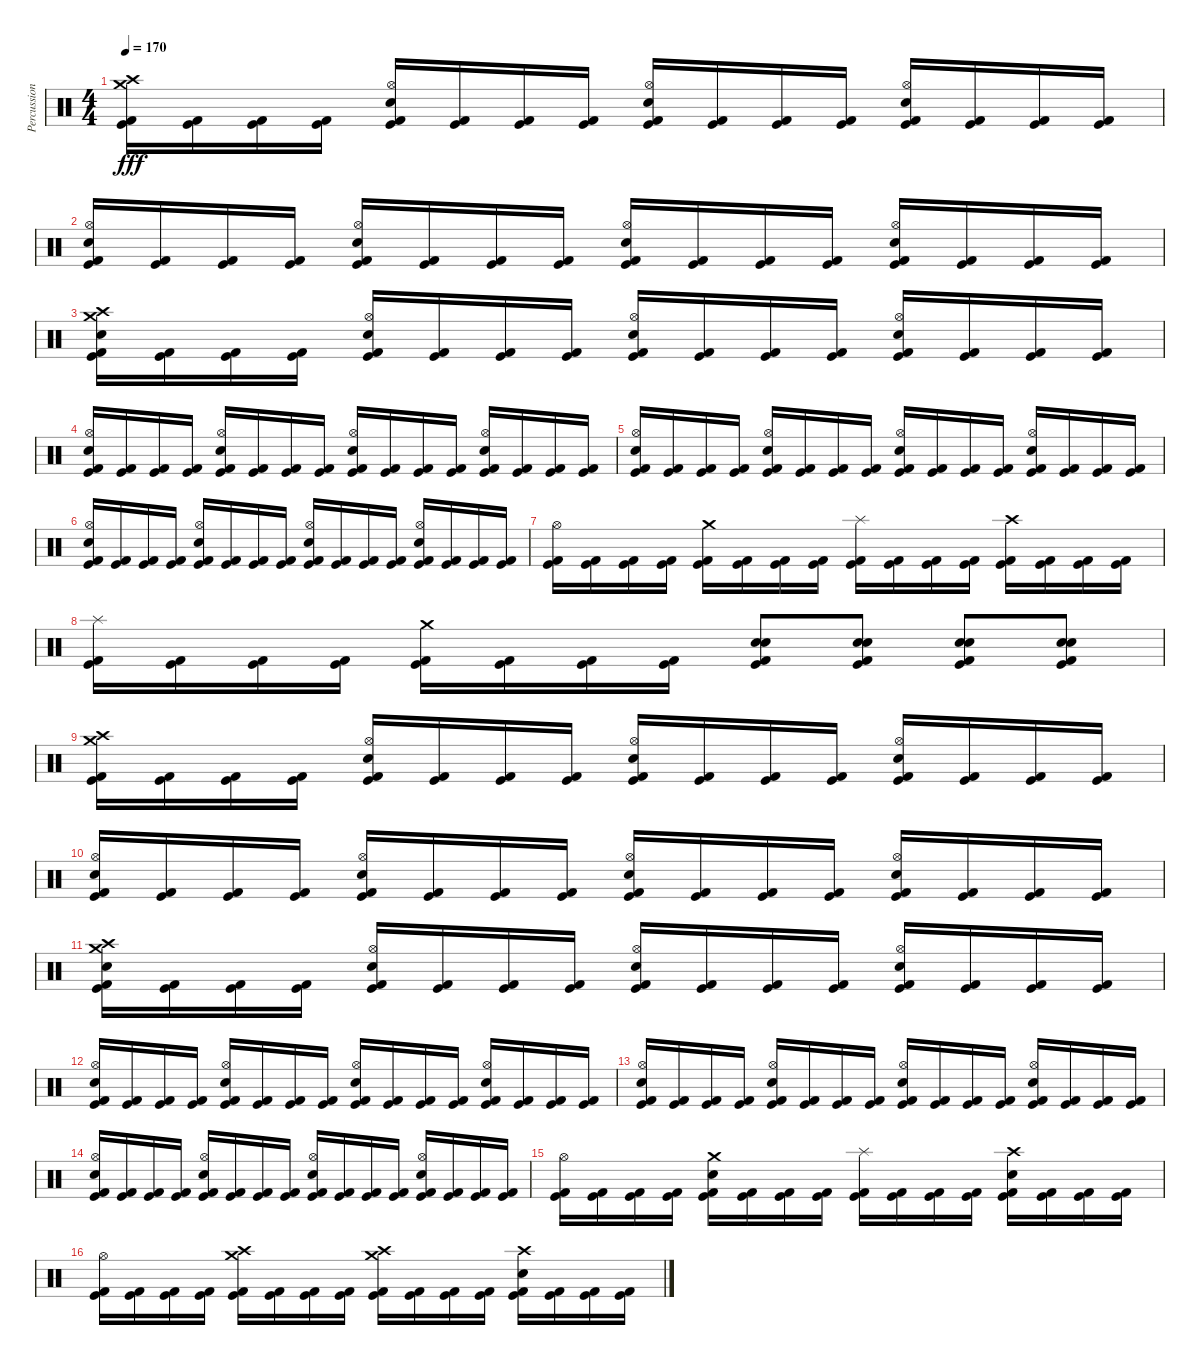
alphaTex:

\track ("Percussions" "Percussion") {instrument percussion}
\staff {score}
\articulation defaults
\ts (4 4)
\tempo 170
\clef neutral
\ks c
("Crash high (hit)" "Crash medium (hit)" "Kick (hit)" "Kick (hit) 2").16{dy fff} ("Kick (hit)" "Kick (hit) 2").16 ("Kick (hit)" "Kick (hit) 2").16 ("Kick (hit)" "Kick (hit) 2").16 ("Hi-Hat (open)" "Electric Snare (hit)" "Kick (hit)" "Kick (hit) 2").16 ("Kick (hit)" "Kick (hit) 2").16 ("Kick (hit)" "Kick (hit) 2").16 ("Kick (hit)" "Kick (hit) 2").16 ("Hi-Hat (open)" "Electric Snare (hit)" "Kick (hit)" "Kick (hit) 2").16 ("Kick (hit)" "Kick (hit) 2").16 ("Kick (hit)" "Kick (hit) 2").16 ("Kick (hit)" "Kick (hit) 2").16 ("Hi-Hat (open)" "Electric Snare (hit)" "Kick (hit)" "Kick (hit) 2").16 ("Kick (hit)" "Kick (hit) 2").16 ("Kick (hit)" "Kick (hit) 2").16 ("Kick (hit)" "Kick (hit) 2").16 |
("Hi-Hat (open)" "Electric Snare (hit)" "Kick (hit)" "Kick (hit) 2").16 ("Kick (hit)" "Kick (hit) 2").16 ("Kick (hit)" "Kick (hit) 2").16 ("Kick (hit)" "Kick (hit) 2").16 ("Hi-Hat (open)" "Electric Snare (hit)" "Kick (hit)" "Kick (hit) 2").16 ("Kick (hit)" "Kick (hit) 2").16 ("Kick (hit)" "Kick (hit) 2").16 ("Kick (hit)" "Kick (hit) 2").16 ("Hi-Hat (open)" "Electric Snare (hit)" "Kick (hit)" "Kick (hit) 2").16 ("Kick (hit)" "Kick (hit) 2").16 ("Kick (hit)" "Kick (hit) 2").16 ("Kick (hit)" "Kick (hit) 2").16 ("Hi-Hat (open)" "Electric Snare (hit)" "Kick (hit)" "Kick (hit) 2").16 ("Kick (hit)" "Kick (hit) 2").16 ("Kick (hit)" "Kick (hit) 2").16 ("Kick (hit)" "Kick (hit) 2").16 |
("Crash high (hit)" "Crash medium (hit)" "Electric Snare (hit)" "Kick (hit)" "Kick (hit) 2").16 ("Kick (hit)" "Kick (hit) 2").16 ("Kick (hit)" "Kick (hit) 2").16 ("Kick (hit)" "Kick (hit) 2").16 ("Hi-Hat (open)" "Electric Snare (hit)" "Kick (hit)" "Kick (hit) 2").16 ("Kick (hit)" "Kick (hit) 2").16 ("Kick (hit)" "Kick (hit) 2").16 ("Kick (hit)" "Kick (hit) 2").16 ("Hi-Hat (open)" "Electric Snare (hit)" "Kick (hit)" "Kick (hit) 2").16 ("Kick (hit)" "Kick (hit) 2").16 ("Kick (hit)" "Kick (hit) 2").16 ("Kick (hit)" "Kick (hit) 2").16 ("Hi-Hat (open)" "Electric Snare (hit)" "Kick (hit)" "Kick (hit) 2").16 ("Kick (hit)" "Kick (hit) 2").16 ("Kick (hit)" "Kick (hit) 2").16 ("Kick (hit)" "Kick (hit) 2").16 |
("Hi-Hat (open)" "Electric Snare (hit)" "Kick (hit)" "Kick (hit) 2").16 ("Kick (hit)" "Kick (hit) 2").16 ("Kick (hit)" "Kick (hit) 2").16 ("Kick (hit)" "Kick (hit) 2").16 ("Hi-Hat (open)" "Electric Snare (hit)" "Kick (hit)" "Kick (hit) 2").16 ("Kick (hit)" "Kick (hit) 2").16 ("Kick (hit)" "Kick (hit) 2").16 ("Kick (hit)" "Kick (hit) 2").16 ("Hi-Hat (open)" "Electric Snare (hit)" "Kick (hit)" "Kick (hit) 2").16 ("Kick (hit)" "Kick (hit) 2").16 ("Kick (hit)" "Kick (hit) 2").16 ("Kick (hit)" "Kick (hit) 2").16 ("Hi-Hat (open)" "Electric Snare (hit)" "Kick (hit)" "Kick (hit) 2").16 ("Kick (hit)" "Kick (hit) 2").16 ("Kick (hit)" "Kick (hit) 2").16 ("Kick (hit)" "Kick (hit) 2").16 |
("Hi-Hat (open)" "Electric Snare (hit)" "Kick (hit)" "Kick (hit) 2").16 ("Kick (hit)" "Kick (hit) 2").16 ("Kick (hit)" "Kick (hit) 2").16 ("Kick (hit)" "Kick (hit) 2").16 ("Hi-Hat (open)" "Electric Snare (hit)" "Kick (hit)" "Kick (hit) 2").16 ("Kick (hit)" "Kick (hit) 2").16 ("Kick (hit)" "Kick (hit) 2").16 ("Kick (hit)" "Kick (hit) 2").16 ("Hi-Hat (open)" "Electric Snare (hit)" "Kick (hit)" "Kick (hit) 2").16 ("Kick (hit)" "Kick (hit) 2").16 ("Kick (hit)" "Kick (hit) 2").16 ("Kick (hit)" "Kick (hit) 2").16 ("Hi-Hat (open)" "Electric Snare (hit)" "Kick (hit)" "Kick (hit) 2").16 ("Kick (hit)" "Kick (hit) 2").16 ("Kick (hit)" "Kick (hit) 2").16 ("Kick (hit)" "Kick (hit) 2").16 |
("Hi-Hat (open)" "Electric Snare (hit)" "Kick (hit)" "Kick (hit) 2").16 ("Kick (hit)" "Kick (hit) 2").16 ("Kick (hit)" "Kick (hit) 2").16 ("Kick (hit)" "Kick (hit) 2").16 ("Hi-Hat (open)" "Electric Snare (hit)" "Kick (hit)" "Kick (hit) 2").16 ("Kick (hit)" "Kick (hit) 2").16 ("Kick (hit)" "Kick (hit) 2").16 ("Kick (hit)" "Kick (hit) 2").16 ("Hi-Hat (open)" "Electric Snare (hit)" "Kick (hit)" "Kick (hit) 2").16 ("Kick (hit)" "Kick (hit) 2").16 ("Kick (hit)" "Kick (hit) 2").16 ("Kick (hit)" "Kick (hit) 2").16 ("Hi-Hat (open)" "Electric Snare (hit)" "Kick (hit)" "Kick (hit) 2").16 ("Kick (hit)" "Kick (hit) 2").16 ("Kick (hit)" "Kick (hit) 2").16 ("Kick (hit)" "Kick (hit) 2").16 |
("Hi-Hat (open)" "Kick (hit)" "Kick (hit) 2").16 ("Kick (hit)" "Kick (hit) 2").16 ("Kick (hit)" "Kick (hit) 2").16 ("Kick (hit)" "Kick (hit) 2").16 ("Crash medium (hit)" "Kick (hit)" "Kick (hit) 2").16 ("Kick (hit)" "Kick (hit) 2").16 ("Kick (hit)" "Kick (hit) 2").16 ("Kick (hit)" "Kick (hit) 2").16 ("Splash (hit)" "Kick (hit)" "Kick (hit) 2").16 ("Kick (hit)" "Kick (hit) 2").16 ("Kick (hit)" "Kick (hit) 2").16 ("Kick (hit)" "Kick (hit) 2").16 ("Crash high (hit)" "Kick (hit)" "Kick (hit) 2").16 ("Kick (hit)" "Kick (hit) 2").16 ("Kick (hit)" "Kick (hit) 2").16 ("Kick (hit)" "Kick (hit) 2").16 |
("Splash (hit)" "Kick (hit)" "Kick (hit) 2").16 ("Kick (hit)" "Kick (hit) 2").16 ("Kick (hit)" "Kick (hit) 2").16 ("Kick (hit)" "Kick (hit) 2").16 ("Crash medium (hit)" "Kick (hit)" "Kick (hit) 2").16 ("Kick (hit)" "Kick (hit) 2").16 ("Kick (hit)" "Kick (hit) 2").16 ("Kick (hit)" "Kick (hit) 2").16 ("Snare (hit) 2" "Electric Snare (hit)" "Kick (hit)" "Kick (hit) 2").8 ("Snare (hit) 2" "Electric Snare (hit)" "Kick (hit)" "Kick (hit) 2").8 ("Snare (hit) 2" "Electric Snare (hit)" "Kick (hit)" "Kick (hit) 2").8 ("Snare (hit) 2" "Electric Snare (hit)" "Kick (hit)" "Kick (hit) 2").8 |
("Crash high (hit)" "Crash medium (hit)" "Kick (hit)" "Kick (hit) 2").16 ("Kick (hit)" "Kick (hit) 2").16 ("Kick (hit)" "Kick (hit) 2").16 ("Kick (hit)" "Kick (hit) 2").16 ("Hi-Hat (open)" "Electric Snare (hit)" "Kick (hit)" "Kick (hit) 2").16 ("Kick (hit)" "Kick (hit) 2").16 ("Kick (hit)" "Kick (hit) 2").16 ("Kick (hit)" "Kick (hit) 2").16 ("Hi-Hat (open)" "Electric Snare (hit)" "Kick (hit)" "Kick (hit) 2").16 ("Kick (hit)" "Kick (hit) 2").16 ("Kick (hit)" "Kick (hit) 2").16 ("Kick (hit)" "Kick (hit) 2").16 ("Hi-Hat (open)" "Electric Snare (hit)" "Kick (hit)" "Kick (hit) 2").16 ("Kick (hit)" "Kick (hit) 2").16 ("Kick (hit)" "Kick (hit) 2").16 ("Kick (hit)" "Kick (hit) 2").16 |
("Hi-Hat (open)" "Electric Snare (hit)" "Kick (hit)" "Kick (hit) 2").16 ("Kick (hit)" "Kick (hit) 2").16 ("Kick (hit)" "Kick (hit) 2").16 ("Kick (hit)" "Kick (hit) 2").16 ("Hi-Hat (open)" "Electric Snare (hit)" "Kick (hit)" "Kick (hit) 2").16 ("Kick (hit)" "Kick (hit) 2").16 ("Kick (hit)" "Kick (hit) 2").16 ("Kick (hit)" "Kick (hit) 2").16 ("Hi-Hat (open)" "Electric Snare (hit)" "Kick (hit)" "Kick (hit) 2").16 ("Kick (hit)" "Kick (hit) 2").16 ("Kick (hit)" "Kick (hit) 2").16 ("Kick (hit)" "Kick (hit) 2").16 ("Hi-Hat (open)" "Electric Snare (hit)" "Kick (hit)" "Kick (hit) 2").16 ("Kick (hit)" "Kick (hit) 2").16 ("Kick (hit)" "Kick (hit) 2").16 ("Kick (hit)" "Kick (hit) 2").16 |
("Crash high (hit)" "Crash medium (hit)" "Electric Snare (hit)" "Kick (hit)" "Kick (hit) 2").16 ("Kick (hit)" "Kick (hit) 2").16 ("Kick (hit)" "Kick (hit) 2").16 ("Kick (hit)" "Kick (hit) 2").16 ("Hi-Hat (open)" "Electric Snare (hit)" "Kick (hit)" "Kick (hit) 2").16 ("Kick (hit)" "Kick (hit) 2").16 ("Kick (hit)" "Kick (hit) 2").16 ("Kick (hit)" "Kick (hit) 2").16 ("Hi-Hat (open)" "Electric Snare (hit)" "Kick (hit)" "Kick (hit) 2").16 ("Kick (hit)" "Kick (hit) 2").16 ("Kick (hit)" "Kick (hit) 2").16 ("Kick (hit)" "Kick (hit) 2").16 ("Hi-Hat (open)" "Electric Snare (hit)" "Kick (hit)" "Kick (hit) 2").16 ("Kick (hit)" "Kick (hit) 2").16 ("Kick (hit)" "Kick (hit) 2").16 ("Kick (hit)" "Kick (hit) 2").16 |
("Hi-Hat (open)" "Electric Snare (hit)" "Kick (hit)" "Kick (hit) 2").16 ("Kick (hit)" "Kick (hit) 2").16 ("Kick (hit)" "Kick (hit) 2").16 ("Kick (hit)" "Kick (hit) 2").16 ("Hi-Hat (open)" "Electric Snare (hit)" "Kick (hit)" "Kick (hit) 2").16 ("Kick (hit)" "Kick (hit) 2").16 ("Kick (hit)" "Kick (hit) 2").16 ("Kick (hit)" "Kick (hit) 2").16 ("Hi-Hat (open)" "Electric Snare (hit)" "Kick (hit)" "Kick (hit) 2").16 ("Kick (hit)" "Kick (hit) 2").16 ("Kick (hit)" "Kick (hit) 2").16 ("Kick (hit)" "Kick (hit) 2").16 ("Hi-Hat (open)" "Electric Snare (hit)" "Kick (hit)" "Kick (hit) 2").16 ("Kick (hit)" "Kick (hit) 2").16 ("Kick (hit)" "Kick (hit) 2").16 ("Kick (hit)" "Kick (hit) 2").16 |
("Hi-Hat (open)" "Electric Snare (hit)" "Kick (hit)" "Kick (hit) 2").16 ("Kick (hit)" "Kick (hit) 2").16 ("Kick (hit)" "Kick (hit) 2").16 ("Kick (hit)" "Kick (hit) 2").16 ("Hi-Hat (open)" "Electric Snare (hit)" "Kick (hit)" "Kick (hit) 2").16 ("Kick (hit)" "Kick (hit) 2").16 ("Kick (hit)" "Kick (hit) 2").16 ("Kick (hit)" "Kick (hit) 2").16 ("Hi-Hat (open)" "Electric Snare (hit)" "Kick (hit)" "Kick (hit) 2").16 ("Kick (hit)" "Kick (hit) 2").16 ("Kick (hit)" "Kick (hit) 2").16 ("Kick (hit)" "Kick (hit) 2").16 ("Hi-Hat (open)" "Electric Snare (hit)" "Kick (hit)" "Kick (hit) 2").16 ("Kick (hit)" "Kick (hit) 2").16 ("Kick (hit)" "Kick (hit) 2").16 ("Kick (hit)" "Kick (hit) 2").16 |
("Hi-Hat (open)" "Electric Snare (hit)" "Kick (hit)" "Kick (hit) 2").16 ("Kick (hit)" "Kick (hit) 2").16 ("Kick (hit)" "Kick (hit) 2").16 ("Kick (hit)" "Kick (hit) 2").16 ("Hi-Hat (open)" "Electric Snare (hit)" "Kick (hit)" "Kick (hit) 2").16 ("Kick (hit)" "Kick (hit) 2").16 ("Kick (hit)" "Kick (hit) 2").16 ("Kick (hit)" "Kick (hit) 2").16 ("Hi-Hat (open)" "Electric Snare (hit)" "Kick (hit)" "Kick (hit) 2").16 ("Kick (hit)" "Kick (hit) 2").16 ("Kick (hit)" "Kick (hit) 2").16 ("Kick (hit)" "Kick (hit) 2").16 ("Hi-Hat (open)" "Electric Snare (hit)" "Kick (hit)" "Kick (hit) 2").16 ("Kick (hit)" "Kick (hit) 2").16 ("Kick (hit)" "Kick (hit) 2").16 ("Kick (hit)" "Kick (hit) 2").16 |
("Hi-Hat (open)" "Kick (hit)" "Kick (hit) 2").16 ("Kick (hit)" "Kick (hit) 2").16 ("Kick (hit)" "Kick (hit) 2").16 ("Kick (hit)" "Kick (hit) 2").16 ("Crash medium (hit)" "Electric Snare (hit)" "Kick (hit)" "Kick (hit) 2").16 ("Kick (hit)" "Kick (hit) 2").16 ("Kick (hit)" "Kick (hit) 2").16 ("Kick (hit)" "Kick (hit) 2").16 ("Splash (hit)" "Kick (hit)" "Kick (hit) 2").16 ("Kick (hit)" "Kick (hit) 2").16 ("Kick (hit)" "Kick (hit) 2").16 ("Kick (hit)" "Kick (hit) 2").16 ("Crash high (hit)" "Electric Snare (hit)" "Kick (hit)" "Kick (hit) 2").16 ("Kick (hit)" "Kick (hit) 2").16 ("Kick (hit)" "Kick (hit) 2").16 ("Kick (hit)" "Kick (hit) 2").16 |
("Hi-Hat (open)" "Kick (hit)" "Kick (hit) 2").16 ("Kick (hit)" "Kick (hit) 2").16 ("Kick (hit)" "Kick (hit) 2").16 ("Kick (hit)" "Kick (hit) 2").16 ("Crash high (hit)" "Crash medium (hit)" "Kick (hit)" "Kick (hit) 2").16 ("Kick (hit)" "Kick (hit) 2").16 ("Kick (hit)" "Kick (hit) 2").16 ("Kick (hit)" "Kick (hit) 2").16 ("Crash high (hit)" "Crash medium (hit)" "Kick (hit)" "Kick (hit) 2").16 ("Kick (hit)" "Kick (hit) 2").16 ("Kick (hit)" "Kick (hit) 2").16 ("Kick (hit)" "Kick (hit) 2").16 ("Crash high (hit)" "Electric Snare (hit)" "Kick (hit)" "Kick (hit) 2").16 ("Kick (hit)" "Kick (hit) 2").16 ("Kick (hit)" "Kick (hit) 2").16 ("Kick (hit)" "Kick (hit) 2").16
